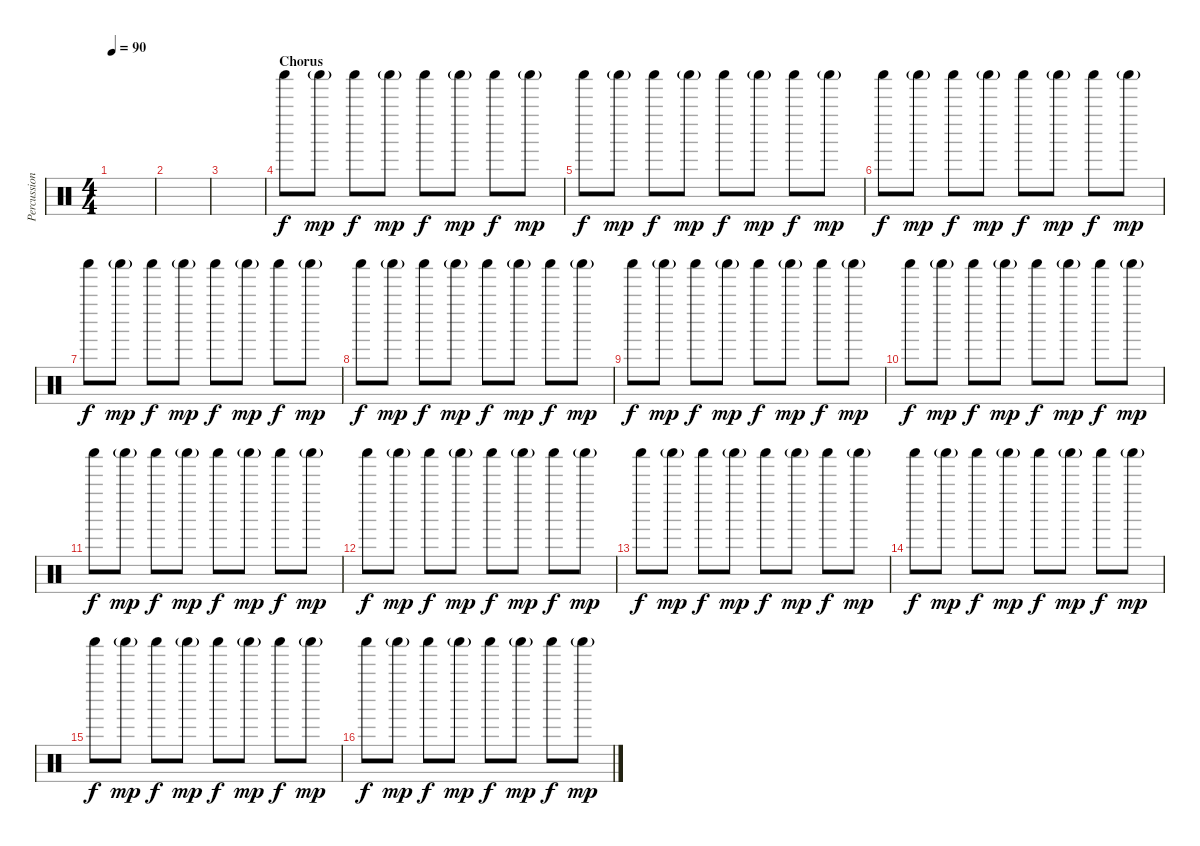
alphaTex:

\track ("Percussion 2" "Percussion") {instrument percussion}
\staff {score}
\articulation defaults
\ts (4 4)
\tempo 90
\clef neutral
\ks c
|
|
|
\section ("" "Chorus")
"Shaker (hit)".8{dy f} "Shaker (hit)"{g}.8{dy mp} "Shaker (hit)".8{dy f} "Shaker (hit)"{g}.8{dy mp} "Shaker (hit)".8{dy f} "Shaker (hit)"{g}.8{dy mp} "Shaker (hit)".8{dy f} "Shaker (hit)"{g}.8{dy mp} |
"Shaker (hit)".8{dy f} "Shaker (hit)"{g}.8{dy mp} "Shaker (hit)".8{dy f} "Shaker (hit)"{g}.8{dy mp} "Shaker (hit)".8{dy f} "Shaker (hit)"{g}.8{dy mp} "Shaker (hit)".8{dy f} "Shaker (hit)"{g}.8{dy mp} |
"Shaker (hit)".8{dy f} "Shaker (hit)"{g}.8{dy mp} "Shaker (hit)".8{dy f} "Shaker (hit)"{g}.8{dy mp} "Shaker (hit)".8{dy f} "Shaker (hit)"{g}.8{dy mp} "Shaker (hit)".8{dy f} "Shaker (hit)"{g}.8{dy mp} |
"Shaker (hit)".8{dy f} "Shaker (hit)"{g}.8{dy mp} "Shaker (hit)".8{dy f} "Shaker (hit)"{g}.8{dy mp} "Shaker (hit)".8{dy f} "Shaker (hit)"{g}.8{dy mp} "Shaker (hit)".8{dy f} "Shaker (hit)"{g}.8{dy mp} |
"Shaker (hit)".8{dy f} "Shaker (hit)"{g}.8{dy mp} "Shaker (hit)".8{dy f} "Shaker (hit)"{g}.8{dy mp} "Shaker (hit)".8{dy f} "Shaker (hit)"{g}.8{dy mp} "Shaker (hit)".8{dy f} "Shaker (hit)"{g}.8{dy mp} |
"Shaker (hit)".8{dy f} "Shaker (hit)"{g}.8{dy mp} "Shaker (hit)".8{dy f} "Shaker (hit)"{g}.8{dy mp} "Shaker (hit)".8{dy f} "Shaker (hit)"{g}.8{dy mp} "Shaker (hit)".8{dy f} "Shaker (hit)"{g}.8{dy mp} |
"Shaker (hit)".8{dy f} "Shaker (hit)"{g}.8{dy mp} "Shaker (hit)".8{dy f} "Shaker (hit)"{g}.8{dy mp} "Shaker (hit)".8{dy f} "Shaker (hit)"{g}.8{dy mp} "Shaker (hit)".8{dy f} "Shaker (hit)"{g}.8{dy mp} |
"Shaker (hit)".8{dy f} "Shaker (hit)"{g}.8{dy mp} "Shaker (hit)".8{dy f} "Shaker (hit)"{g}.8{dy mp} "Shaker (hit)".8{dy f} "Shaker (hit)"{g}.8{dy mp} "Shaker (hit)".8{dy f} "Shaker (hit)"{g}.8{dy mp} |
"Shaker (hit)".8{dy f} "Shaker (hit)"{g}.8{dy mp} "Shaker (hit)".8{dy f} "Shaker (hit)"{g}.8{dy mp} "Shaker (hit)".8{dy f} "Shaker (hit)"{g}.8{dy mp} "Shaker (hit)".8{dy f} "Shaker (hit)"{g}.8{dy mp} |
"Shaker (hit)".8{dy f} "Shaker (hit)"{g}.8{dy mp} "Shaker (hit)".8{dy f} "Shaker (hit)"{g}.8{dy mp} "Shaker (hit)".8{dy f} "Shaker (hit)"{g}.8{dy mp} "Shaker (hit)".8{dy f} "Shaker (hit)"{g}.8{dy mp} |
"Shaker (hit)".8{dy f} "Shaker (hit)"{g}.8{dy mp} "Shaker (hit)".8{dy f} "Shaker (hit)"{g}.8{dy mp} "Shaker (hit)".8{dy f} "Shaker (hit)"{g}.8{dy mp} "Shaker (hit)".8{dy f} "Shaker (hit)"{g}.8{dy mp} |
"Shaker (hit)".8{dy f} "Shaker (hit)"{g}.8{dy mp} "Shaker (hit)".8{dy f} "Shaker (hit)"{g}.8{dy mp} "Shaker (hit)".8{dy f} "Shaker (hit)"{g}.8{dy mp} "Shaker (hit)".8{dy f} "Shaker (hit)"{g}.8{dy mp} |
"Shaker (hit)".8{dy f} "Shaker (hit)"{g}.8{dy mp} "Shaker (hit)".8{dy f} "Shaker (hit)"{g}.8{dy mp} "Shaker (hit)".8{dy f} "Shaker (hit)"{g}.8{dy mp} "Shaker (hit)".8{dy f} "Shaker (hit)"{g}.8{dy mp}
